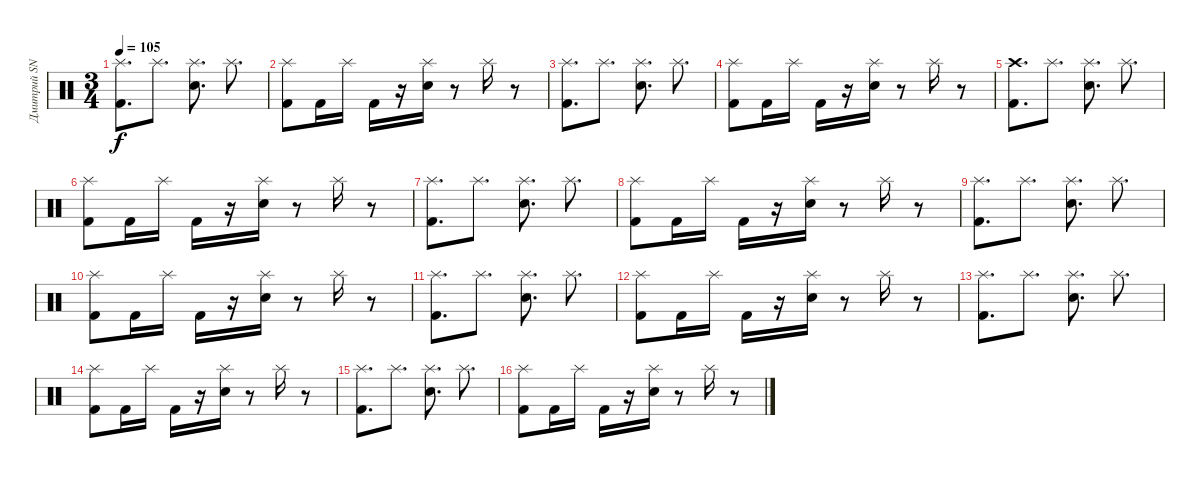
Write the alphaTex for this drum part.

\track ("Дмитрий SNAKE Хакимов" "Дмитрий SN") {instrument percussion}
\staff {score}
\articulation defaults
\ts (3 4)
\tempo 105
\clef neutral
\ks c
("Splash (hit)" "Kick (hit) 2").8{d dy f} "Splash (hit)".8{d} ("Splash (hit)" "Snare (hit) 2").8{d} "Splash (hit)".8{d} |
("Splash (hit)" "Kick (hit) 2").8 "Kick (hit) 2".16 "Splash (hit)".16 "Kick (hit) 2".16 r.16 ("Splash (hit)" "Snare (hit) 2").16 r.8 "Splash (hit)".16 r.8 |
("Splash (hit)" "Kick (hit) 2").8{d} "Splash (hit)".8{d} ("Splash (hit)" "Snare (hit) 2").8{d} "Splash (hit)".8{d} |
("Splash (hit)" "Kick (hit) 2").8 "Kick (hit) 2".16 "Splash (hit)".16 "Kick (hit) 2".16 r.16 ("Splash (hit)" "Snare (hit) 2").16 r.8 "Splash (hit)".16 r.8 |
("Crash high (hit)" "Kick (hit) 2").8{d} "Splash (hit)".8{d} ("Splash (hit)" "Snare (hit) 2").8{d} "Splash (hit)".8{d} |
("Splash (hit)" "Kick (hit) 2").8 "Kick (hit) 2".16 "Splash (hit)".16 "Kick (hit) 2".16 r.16 ("Splash (hit)" "Snare (hit) 2").16 r.8 "Splash (hit)".16 r.8 |
("Splash (hit)" "Kick (hit) 2").8{d} "Splash (hit)".8{d} ("Splash (hit)" "Snare (hit) 2").8{d} "Splash (hit)".8{d} |
("Splash (hit)" "Kick (hit) 2").8 "Kick (hit) 2".16 "Splash (hit)".16 "Kick (hit) 2".16 r.16 ("Splash (hit)" "Snare (hit) 2").16 r.8 "Splash (hit)".16 r.8 |
("Splash (hit)" "Kick (hit) 2").8{d} "Splash (hit)".8{d} ("Splash (hit)" "Snare (hit) 2").8{d} "Splash (hit)".8{d} |
("Splash (hit)" "Kick (hit) 2").8 "Kick (hit) 2".16 "Splash (hit)".16 "Kick (hit) 2".16 r.16 ("Splash (hit)" "Snare (hit) 2").16 r.8 "Splash (hit)".16 r.8 |
("Splash (hit)" "Kick (hit) 2").8{d} "Splash (hit)".8{d} ("Splash (hit)" "Snare (hit) 2").8{d} "Splash (hit)".8{d} |
("Splash (hit)" "Kick (hit) 2").8 "Kick (hit) 2".16 "Splash (hit)".16 "Kick (hit) 2".16 r.16 ("Splash (hit)" "Snare (hit) 2").16 r.8 "Splash (hit)".16 r.8 |
("Splash (hit)" "Kick (hit) 2").8{d} "Splash (hit)".8{d} ("Splash (hit)" "Snare (hit) 2").8{d} "Splash (hit)".8{d} |
("Splash (hit)" "Kick (hit) 2").8 "Kick (hit) 2".16 "Splash (hit)".16 "Kick (hit) 2".16 r.16 ("Splash (hit)" "Snare (hit) 2").16 r.8 "Splash (hit)".16 r.8 |
("Splash (hit)" "Kick (hit) 2").8{d} "Splash (hit)".8{d} ("Splash (hit)" "Snare (hit) 2").8{d} "Splash (hit)".8{d} |
("Splash (hit)" "Kick (hit) 2").8 "Kick (hit) 2".16 "Splash (hit)".16 "Kick (hit) 2".16 r.16 ("Splash (hit)" "Snare (hit) 2").16 r.8 "Splash (hit)".16 r.8
